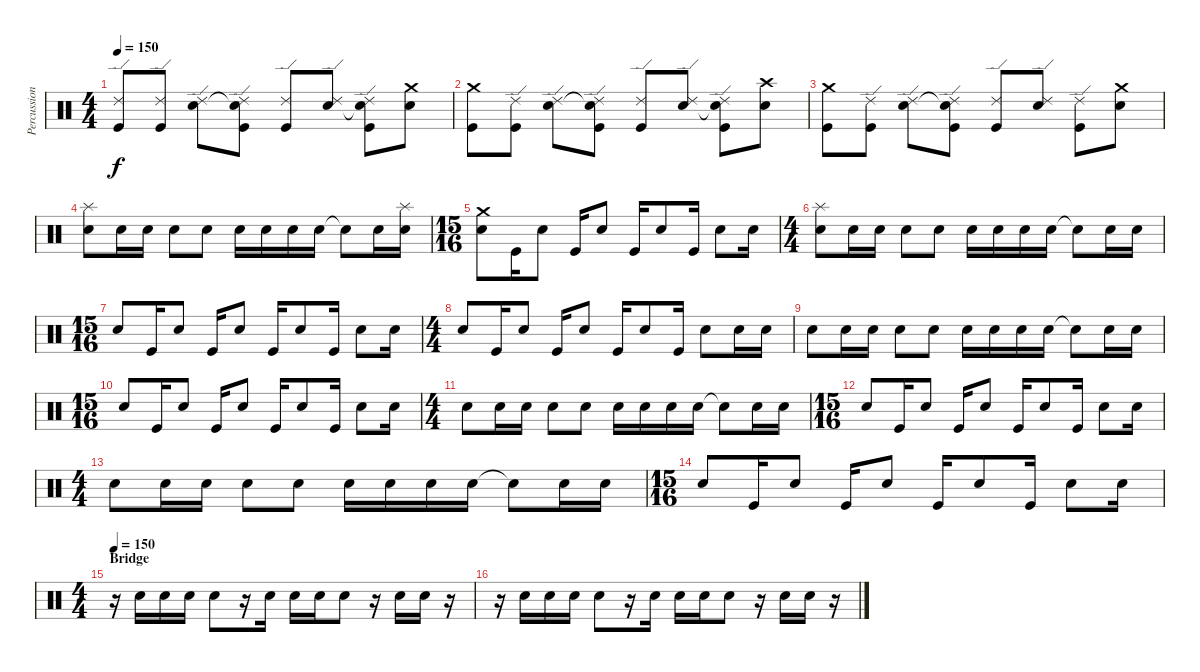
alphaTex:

\track ("Percussioni" "Percussion") {instrument percussion}
\staff {score}
\articulation defaults
\ts (4 4)
\tempo 150
\clef neutral
\ks c
("Ride (edge) 2" "Kick (hit)").8{dy f} ("Ride (edge) 2" "Kick (hit)").8 ("Ride (edge) 2" "Electric Snare (hit)").8 ("Ride (edge) 2" "Snare (hit)"{t} "Kick (hit)").8 ("Ride (edge) 2" "Kick (hit)").8 ("Ride (edge) 2" "Electric Snare (hit)").8 ("Ride (edge) 2" "Electric Snare (hit)"{t} "Kick (hit)").8 ("Crash medium (hit)" "Electric Snare (hit)").8 |
("Crash medium (hit)" "Kick (hit)").8 ("Ride (edge) 2" "Kick (hit)").8 ("Ride (edge) 2" "Electric Snare (hit)").8 ("Ride (edge) 2" "Snare (hit)"{t} "Kick (hit)").8 ("Ride (edge) 2" "Kick (hit)").8 ("Ride (edge) 2" "Electric Snare (hit)").8 ("Ride (edge) 2" "Electric Snare (hit)"{t} "Kick (hit)").8 ("Crash high (hit)" "Electric Snare (hit)").8 |
("Crash medium (hit)" "Kick (hit)").8 ("Ride (edge) 2" "Kick (hit)").8 ("Ride (edge) 2" "Electric Snare (hit)").8 ("Ride (edge) 2" "Snare (hit)"{t} "Kick (hit)").8 ("Ride (edge) 2" "Kick (hit)").8 ("Ride (edge) 2" "Electric Snare (hit)").8 ("Ride (edge) 2" "Kick (hit)").8 ("Crash medium (hit)" "Electric Snare (hit)").8 |
("Splash (hit)" "Electric Snare (hit)").8 "Electric Snare (hit)".16 "Electric Snare (hit)".16 "Electric Snare (hit)".8 "Electric Snare (hit)".8 "Electric Snare (hit)".16 "Electric Snare (hit)".16 "Electric Snare (hit)".16 "Electric Snare (hit)".16 "Electric Snare (hit)"{t}.8 "Electric Snare (hit)".16 ("Splash (hit)" "Electric Snare (hit)").16 |
\ts (15 16)
("Crash medium (hit)" "Electric Snare (hit)").8 "Kick (hit)".16 "Electric Snare (hit)".8 "Kick (hit)".16 "Electric Snare (hit)".8 "Kick (hit)".16 "Electric Snare (hit)".8 "Kick (hit)".16 "Electric Snare (hit)".8 "Electric Snare (hit)".16 |
\ts (4 4)
("Splash (hit)" "Electric Snare (hit)").8 "Electric Snare (hit)".16 "Electric Snare (hit)".16 "Electric Snare (hit)".8 "Electric Snare (hit)".8 "Electric Snare (hit)".16 "Electric Snare (hit)".16 "Electric Snare (hit)".16 "Electric Snare (hit)".16 "Electric Snare (hit)"{t}.8 "Electric Snare (hit)".16 "Electric Snare (hit)".16 |
\ts (15 16)
"Electric Snare (hit)".8 "Kick (hit)".16 "Electric Snare (hit)".8 "Kick (hit)".16 "Electric Snare (hit)".8 "Kick (hit)".16 "Electric Snare (hit)".8 "Kick (hit)".16 "Electric Snare (hit)".8 "Electric Snare (hit)".16 |
\ts (4 4)
"Electric Snare (hit)".8 "Kick (hit)".16 "Electric Snare (hit)".8 "Kick (hit)".16 "Electric Snare (hit)".8 "Kick (hit)".16 "Electric Snare (hit)".8 "Kick (hit)".16 "Electric Snare (hit)".8 "Electric Snare (hit)".16 "Electric Snare (hit)".16 |
"Electric Snare (hit)".8 "Electric Snare (hit)".16 "Electric Snare (hit)".16 "Electric Snare (hit)".8 "Electric Snare (hit)".8 "Electric Snare (hit)".16 "Electric Snare (hit)".16 "Electric Snare (hit)".16 "Electric Snare (hit)".16 "Electric Snare (hit)"{t}.8 "Electric Snare (hit)".16 "Electric Snare (hit)".16 |
\ts (15 16)
"Electric Snare (hit)".8 "Kick (hit)".16 "Electric Snare (hit)".8 "Kick (hit)".16 "Electric Snare (hit)".8 "Kick (hit)".16 "Electric Snare (hit)".8 "Kick (hit)".16 "Electric Snare (hit)".8 "Electric Snare (hit)".16 |
\ts (4 4)
"Electric Snare (hit)".8 "Electric Snare (hit)".16 "Electric Snare (hit)".16 "Electric Snare (hit)".8 "Electric Snare (hit)".8 "Electric Snare (hit)".16 "Electric Snare (hit)".16 "Electric Snare (hit)".16 "Electric Snare (hit)".16 "Electric Snare (hit)"{t}.8 "Electric Snare (hit)".16 "Electric Snare (hit)".16 |
\ts (15 16)
"Electric Snare (hit)".8 "Kick (hit)".16 "Electric Snare (hit)".8 "Kick (hit)".16 "Electric Snare (hit)".8 "Kick (hit)".16 "Electric Snare (hit)".8 "Kick (hit)".16 "Electric Snare (hit)".8 "Electric Snare (hit)".16 |
\ts (4 4)
"Electric Snare (hit)".8 "Electric Snare (hit)".16 "Electric Snare (hit)".16 "Electric Snare (hit)".8 "Electric Snare (hit)".8 "Electric Snare (hit)".16 "Electric Snare (hit)".16 "Electric Snare (hit)".16 "Electric Snare (hit)".16 "Electric Snare (hit)"{t}.8 "Electric Snare (hit)".16 "Electric Snare (hit)".16 |
\ts (15 16)
"Electric Snare (hit)".8 "Kick (hit)".16 "Electric Snare (hit)".8 "Kick (hit)".16 "Electric Snare (hit)".8 "Kick (hit)".16 "Electric Snare (hit)".8 "Kick (hit)".16 "Electric Snare (hit)".8 "Electric Snare (hit)".16 |
\ts (4 4)
\section ("" "Bridge")
\tempo 150
r.16 "Electric Snare (hit)".16 "Electric Snare (hit)".16 "Electric Snare (hit)".16 "Electric Snare (hit)".8 r.16 "Electric Snare (hit)".16 "Electric Snare (hit)".16 "Electric Snare (hit)".16 "Electric Snare (hit)".8 r.16 "Electric Snare (hit)".16 "Electric Snare (hit)".16 r.16 |
r.16 "Electric Snare (hit)".16 "Electric Snare (hit)".16 "Electric Snare (hit)".16 "Electric Snare (hit)".8 r.16 "Electric Snare (hit)".16 "Electric Snare (hit)".16 "Electric Snare (hit)".16 "Electric Snare (hit)".8 r.16 "Electric Snare (hit)".16 "Electric Snare (hit)".16 r.16
